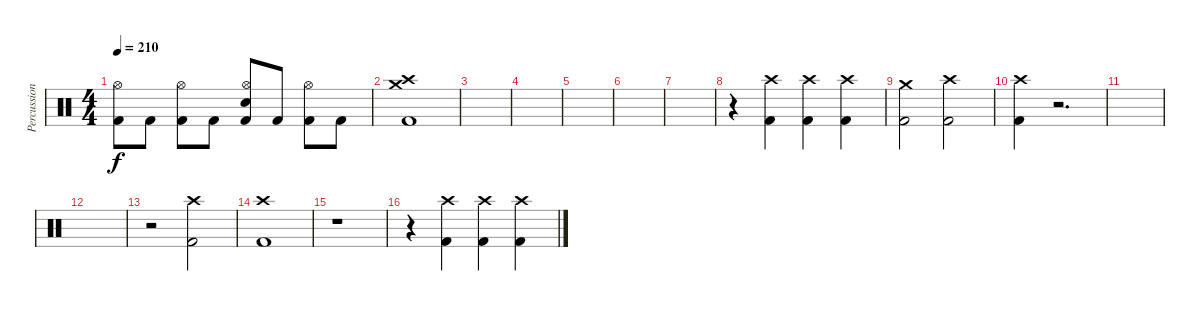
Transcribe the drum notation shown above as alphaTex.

\track ("Percussions" "Percussion") {instrument percussion}
\staff {score}
\articulation defaults
\ts (4 4)
\tempo 210
\clef neutral
\ks c
("Kick (hit) 2" "Hi-Hat (open)").8{dy f} "Kick (hit) 2".8 ("Kick (hit) 2" "Hi-Hat (open)").8 "Kick (hit) 2".8 ("Kick (hit) 2" "Electric Snare (hit)" "Hi-Hat (open)").8 "Kick (hit) 2".8 ("Kick (hit) 2" "Hi-Hat (open)").8 "Kick (hit) 2".8 |
("Kick (hit) 2" "Crash high (hit)" "Crash medium (hit)").1 |
|
|
|
|
|
r.4 ("Kick (hit) 2" "Crash high (hit)").4 ("Kick (hit) 2" "Crash high (hit)").4 ("Kick (hit) 2" "Crash high (hit)").4 |
("Kick (hit) 2" "Crash medium (hit)").2 ("Kick (hit) 2" "Crash high (hit)").2 |
("Kick (hit) 2" "Crash high (hit)").4 r.2{d} |
|
|
r.2 ("Kick (hit) 2" "Crash high (hit)").2 |
("Kick (hit) 2" "Crash high (hit)").1 |
r.1 |
r.4 ("Kick (hit) 2" "Crash high (hit)").4 ("Kick (hit) 2" "Crash high (hit)").4 ("Kick (hit) 2" "Crash high (hit)").4
